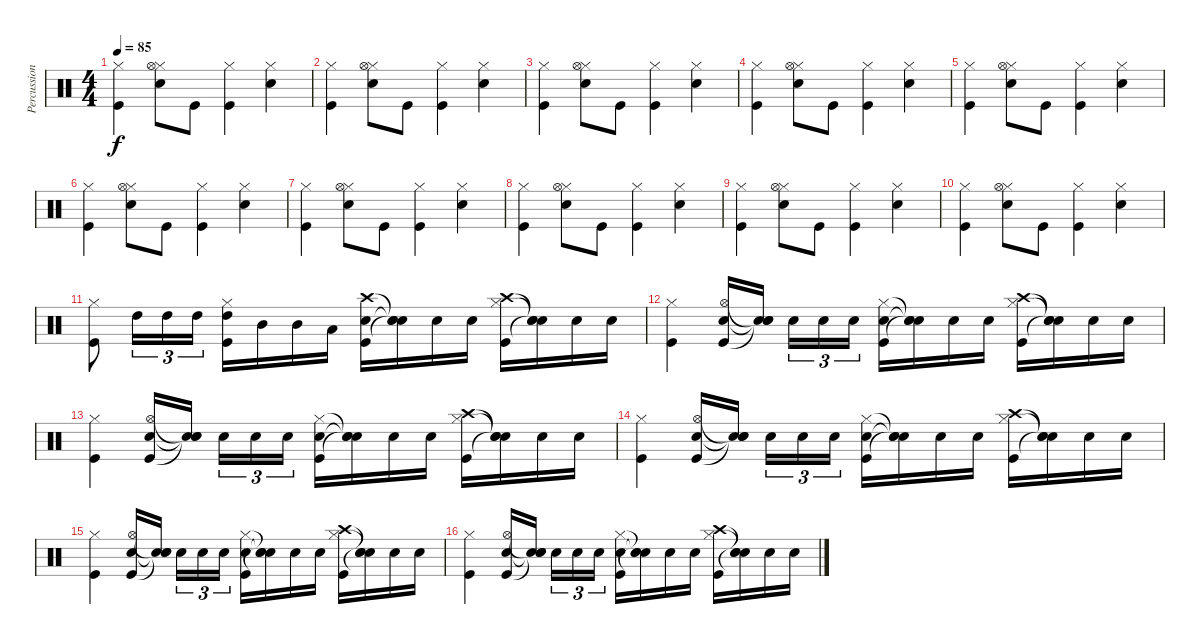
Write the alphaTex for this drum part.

\track ("Percussions" "Percussion") {instrument percussion}
\staff {score}
\articulation defaults
\ts (4 4)
\tempo 85
\clef neutral
\ks c
("Hi-Hat (closed)" "Kick (hit)").4{dy f} ("Hi-Hat (closed)" "Hi-Hat (open)" "Snare (hit) 2").8 "Kick (hit)".8 ("Hi-Hat (closed)" "Kick (hit)").4 ("Hi-Hat (closed)" "Snare (hit) 2").4 |
("Hi-Hat (closed)" "Kick (hit)").4 ("Hi-Hat (closed)" "Hi-Hat (open)" "Snare (hit) 2").8 "Kick (hit)".8 ("Hi-Hat (closed)" "Kick (hit)").4 ("Hi-Hat (closed)" "Snare (hit) 2").4 |
("Hi-Hat (closed)" "Kick (hit)").4 ("Hi-Hat (closed)" "Hi-Hat (open)" "Snare (hit) 2").8 "Kick (hit)".8 ("Hi-Hat (closed)" "Kick (hit)").4 ("Hi-Hat (closed)" "Snare (hit) 2").4 |
("Hi-Hat (closed)" "Kick (hit)").4 ("Hi-Hat (closed)" "Hi-Hat (open)" "Snare (hit) 2").8 "Kick (hit)".8 ("Hi-Hat (closed)" "Kick (hit)").4 ("Hi-Hat (closed)" "Snare (hit) 2").4 |
("Hi-Hat (closed)" "Kick (hit)").4 ("Hi-Hat (closed)" "Hi-Hat (open)" "Snare (hit) 2").8 "Kick (hit)".8 ("Hi-Hat (closed)" "Kick (hit)").4 ("Hi-Hat (closed)" "Snare (hit) 2").4 |
("Hi-Hat (closed)" "Kick (hit)").4 ("Hi-Hat (closed)" "Hi-Hat (open)" "Snare (hit) 2").8 "Kick (hit)".8 ("Hi-Hat (closed)" "Kick (hit)").4 ("Hi-Hat (closed)" "Snare (hit) 2").4 |
("Hi-Hat (closed)" "Kick (hit)").4 ("Hi-Hat (closed)" "Hi-Hat (open)" "Snare (hit) 2").8 "Kick (hit)".8 ("Hi-Hat (closed)" "Kick (hit)").4 ("Hi-Hat (closed)" "Snare (hit) 2").4 |
("Hi-Hat (closed)" "Kick (hit)").4 ("Hi-Hat (closed)" "Hi-Hat (open)" "Snare (hit) 2").8 "Kick (hit)".8 ("Hi-Hat (closed)" "Kick (hit)").4 ("Hi-Hat (closed)" "Snare (hit) 2").4 |
("Hi-Hat (closed)" "Kick (hit)").4 ("Hi-Hat (closed)" "Hi-Hat (open)" "Snare (hit) 2").8 "Kick (hit)".8 ("Hi-Hat (closed)" "Kick (hit)").4 ("Hi-Hat (closed)" "Snare (hit) 2").4 |
("Hi-Hat (closed)" "Kick (hit)").4 ("Hi-Hat (closed)" "Hi-Hat (open)" "Snare (hit) 2").8 "Kick (hit)".8 ("Hi-Hat (closed)" "Kick (hit)").4 ("Hi-Hat (closed)" "Snare (hit) 2").4 |
("Hi-Hat (closed)" "Kick (hit)").8 "High Tom (hit)".16{tu (3 2)} "High Tom (hit)".16{tu (3 2)} "High Tom (hit)".16{tu (3 2)} ("Hi-Hat (closed)" "High Tom (hit)" "Kick (hit)").16 "Mid Tom (hit)".16 "Mid Tom (hit)".16 "Low Tom (hit)".16 ("Snare (hit) 2" "Kick (hit)" "Crash high (hit)").16 ("Snare (hit)"{t} "Snare (hit)"{t} "Snare (hit)"{t}).16 "Snare (hit) 2".16 "Snare (hit) 2".16 ("Hi-Hat (closed)" "Kick (hit)" "Crash high (hit)").16 ("Snare (hit)"{t} "Snare (hit)"{t} "Snare (hit)"{t}).16 "Snare (hit) 2".16 "Snare (hit) 2".16 |
("Hi-Hat (closed)" "Kick (hit)").4 ("Kick (hit)" "Snare (hit) 2" "Hi-Hat (open)").16 ("Snare (hit)"{t} "Snare (hit)"{t} "Snare (hit)"{t}).16 "Snare (hit) 2".16{tu (3 2)} "Snare (hit) 2".16{tu (3 2)} "Snare (hit) 2".16{tu (3 2)} ("Hi-Hat (closed)" "Snare (hit) 2" "Kick (hit)").16 ("Snare (hit)"{t} "Snare (hit)"{t} "Snare (hit)"{t}).16 "Snare (hit) 2".16 "Snare (hit) 2".16 ("Hi-Hat (closed)" "Kick (hit)" "Crash high (hit)").16 ("Snare (hit)"{t} "Snare (hit)"{t} "Snare (hit)"{t}).16 "Snare (hit) 2".16 "Snare (hit) 2".16 |
("Hi-Hat (closed)" "Kick (hit)").4 ("Kick (hit)" "Snare (hit) 2" "Hi-Hat (open)").16 ("Snare (hit)"{t} "Snare (hit)"{t} "Snare (hit)"{t}).16 "Snare (hit) 2".16{tu (3 2)} "Snare (hit) 2".16{tu (3 2)} "Snare (hit) 2".16{tu (3 2)} ("Hi-Hat (closed)" "Snare (hit) 2" "Kick (hit)").16 ("Snare (hit)"{t} "Snare (hit)"{t} "Snare (hit)"{t}).16 "Snare (hit) 2".16 "Snare (hit) 2".16 ("Hi-Hat (closed)" "Kick (hit)" "Crash high (hit)").16 ("Snare (hit)"{t} "Snare (hit)"{t} "Snare (hit)"{t}).16 "Snare (hit) 2".16 "Snare (hit) 2".16 |
("Hi-Hat (closed)" "Kick (hit)").4 ("Kick (hit)" "Snare (hit) 2" "Hi-Hat (open)").16 ("Snare (hit)"{t} "Snare (hit)"{t} "Snare (hit)"{t}).16 "Snare (hit) 2".16{tu (3 2)} "Snare (hit) 2".16{tu (3 2)} "Snare (hit) 2".16{tu (3 2)} ("Hi-Hat (closed)" "Snare (hit) 2" "Kick (hit)").16 ("Snare (hit)"{t} "Snare (hit)"{t} "Snare (hit)"{t}).16 "Snare (hit) 2".16 "Snare (hit) 2".16 ("Hi-Hat (closed)" "Kick (hit)" "Crash high (hit)").16 ("Snare (hit)"{t} "Snare (hit)"{t} "Snare (hit)"{t}).16 "Snare (hit) 2".16 "Snare (hit) 2".16 |
("Hi-Hat (closed)" "Kick (hit)").4 ("Kick (hit)" "Snare (hit) 2" "Hi-Hat (open)").16 ("Snare (hit)"{t} "Snare (hit)"{t} "Snare (hit)"{t}).16 "Snare (hit) 2".16{tu (3 2)} "Snare (hit) 2".16{tu (3 2)} "Snare (hit) 2".16{tu (3 2)} ("Hi-Hat (closed)" "Snare (hit) 2" "Kick (hit)").16 ("Snare (hit)"{t} "Snare (hit)"{t} "Snare (hit)"{t}).16 "Snare (hit) 2".16 "Snare (hit) 2".16 ("Hi-Hat (closed)" "Kick (hit)" "Crash high (hit)").16 ("Snare (hit)"{t} "Snare (hit)"{t} "Snare (hit)"{t}).16 "Snare (hit) 2".16 "Snare (hit) 2".16 |
("Hi-Hat (closed)" "Kick (hit)").4 ("Kick (hit)" "Snare (hit) 2" "Hi-Hat (open)").16 ("Snare (hit)"{t} "Snare (hit)"{t} "Snare (hit)"{t}).16 "Snare (hit) 2".16{tu (3 2)} "Snare (hit) 2".16{tu (3 2)} "Snare (hit) 2".16{tu (3 2)} ("Hi-Hat (closed)" "Snare (hit) 2" "Kick (hit)").16 ("Snare (hit)"{t} "Snare (hit)"{t} "Snare (hit)"{t}).16 "Snare (hit) 2".16 "Snare (hit) 2".16 ("Hi-Hat (closed)" "Kick (hit)" "Crash high (hit)").16 ("Snare (hit)"{t} "Snare (hit)"{t} "Snare (hit)"{t}).16 "Snare (hit) 2".16 "Snare (hit) 2".16
